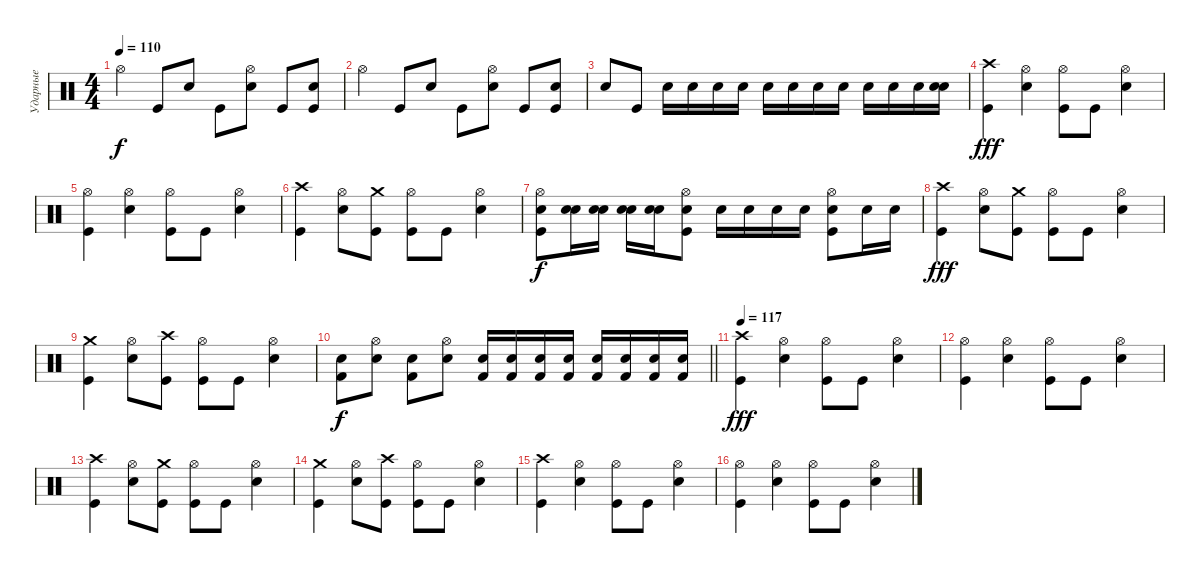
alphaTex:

\track ("Ударные" "Ударные") {instrument percussion}
\staff {score}
\articulation defaults
\ts (4 4)
\tempo 110
\clef neutral
\ks c "Hi-Hat (open)".4{dy f} "Kick (hit)".8 "Snare (hit) 2".8 "Kick (hit)".8
("Snare (hit) 2" "Hi-Hat (open)").8 "Kick (hit)".8 ("Kick (hit)" "Snare (hit) 2").8 |
"Hi-Hat (open)".4 "Kick (hit)".8 "Snare (hit) 2".8 "Kick (hit)".8 ("Snare (hit) 2" "Hi-Hat (open)").8 "Kick (hit)".8 ("Kick (hit)" "Snare (hit) 2").8 |
"Snare (hit) 2".8 "Kick (hit)".8 "Snare (hit) 2".16 "Snare (hit) 2".16 "Snare (hit) 2".16 "Snare (hit) 2".16 "Snare (hit) 2".16 "Snare (hit) 2".16 "Snare (hit) 2".16 "Snare (hit) 2".16 "Snare (hit) 2".16 "Snare (hit) 2".16 "Snare (hit) 2".16 ("Snare (hit) 2" "Snare (hit) 2").16 |
("Crash high (hit)" "Kick (hit)").4{dy fff} ("Hi-Hat (open)" "Electric Snare (hit)").4 ("Hi-Hat (open)" "Kick (hit)").8 "Kick (hit)".8 ("Hi-Hat (open)" "Electric Snare (hit)").4 |
("Hi-Hat (open)" "Kick (hit)").4 ("Hi-Hat (open)" "Electric Snare (hit)").4 ("Hi-Hat (open)" "Kick (hit)").8 "Kick (hit)".8 ("Hi-Hat (open)" "Electric Snare (hit)").4 |
("Crash high (hit)" "Kick (hit)").4 ("Hi-Hat (open)" "Electric Snare (hit)").8 ("Crash medium (hit)" "Kick (hit)").8 ("Hi-Hat (open)" "Kick (hit)").8 "Kick (hit)".8 ("Hi-Hat (open)" "Electric Snare (hit)").4 |
("Snare (hit) 2" "Kick (hit)" "Hi-Hat (open)").8{dy f} ("Snare (hit) 2" "Snare (hit) 2").16 ("Snare (hit) 2" "Snare (hit) 2").16 ("Snare (hit) 2" "Snare (hit) 2").16 ("Snare (hit) 2" "Snare (hit) 2").16 ("Snare (hit) 2" "Kick (hit)" "Hi-Hat (open)").8 "Snare (hit) 2".16 "Snare (hit) 2".16 "Snare (hit) 2".16 "Snare (hit) 2".16 ("Snare (hit) 2" "Kick (hit)" "Hi-Hat (open)").8 "Snare (hit) 2".16 "Snare (hit) 2".16 |
("Crash high (hit)" "Kick (hit)").4{dy fff} ("Hi-Hat (open)" "Electric Snare (hit)").8 ("Crash medium (hit)" "Kick (hit)").8 ("Hi-Hat (open)" "Kick (hit)").8 "Kick (hit)".8 ("Hi-Hat (open)" "Electric Snare (hit)").4 |
("Crash medium (hit)" "Kick (hit)").4 ("Hi-Hat (open)" "Electric Snare (hit)").8 ("Crash high (hit)" "Kick (hit)").8 ("Hi-Hat (open)" "Kick (hit)").8 "Kick (hit)".8 ("Hi-Hat (open)" "Electric Snare (hit)").4 |
\barLineRight lightlight
("Electric Snare (hit)" "Kick (hit) 2").8{dy f} ("Electric Snare (hit)" "Hi-Hat (open)").8 ("Electric Snare (hit)" "Kick (hit) 2").8 ("Electric Snare (hit)" "Hi-Hat (open)").8 ("Electric Snare (hit)" "Kick (hit) 2").16 ("Electric Snare (hit)" "Kick (hit) 2").16 ("Kick (hit) 2" "Electric Snare (hit)").16 ("Electric Snare (hit)" "Kick (hit) 2").16 ("Kick (hit) 2" "Electric Snare (hit)").16 ("Electric Snare (hit)" "Kick (hit) 2").16 ("Kick (hit) 2" "Electric Snare (hit)").16 ("Electric Snare (hit)" "Kick (hit) 2").16 |
\section ("" "")
\tempo 112
\tempo 117
("Crash high (hit)" "Kick (hit)").4{dy fff} ("Hi-Hat (open)" "Electric Snare (hit)").4 ("Hi-Hat (open)" "Kick (hit)").8 "Kick (hit)".8 ("Hi-Hat (open)" "Electric Snare (hit)").4 |
("Hi-Hat (open)" "Kick (hit)").4 ("Hi-Hat (open)" "Electric Snare (hit)").4 ("Hi-Hat (open)" "Kick (hit)").8 "Kick (hit)".8 ("Hi-Hat (open)" "Electric Snare (hit)").4 |
("Crash high (hit)" "Kick (hit)").4 ("Hi-Hat (open)" "Electric Snare (hit)").8 ("Crash medium (hit)" "Kick (hit)").8 ("Hi-Hat (open)" "Kick (hit)").8 "Kick (hit)".8 ("Hi-Hat (open)" "Electric Snare (hit)").4 |
("Crash medium (hit)" "Kick (hit)").4 ("Hi-Hat (open)" "Electric Snare (hit)").8 ("Crash high (hit)" "Kick (hit)").8 ("Hi-Hat (open)" "Kick (hit)").8 "Kick (hit)".8 ("Hi-Hat (open)" "Electric Snare (hit)").4 |
("Crash high (hit)" "Kick (hit)").4 ("Hi-Hat (open)" "Electric Snare (hit)").4 ("Hi-Hat (open)" "Kick (hit)").8 "Kick (hit)".8 ("Hi-Hat (open)" "Electric Snare (hit)").4 |
("Hi-Hat (open)" "Kick (hit)").4 ("Hi-Hat (open)" "Electric Snare (hit)").4 ("Hi-Hat (open)" "Kick (hit)").8 "Kick (hit)".8 ("Hi-Hat (open)" "Electric Snare (hit)").4
